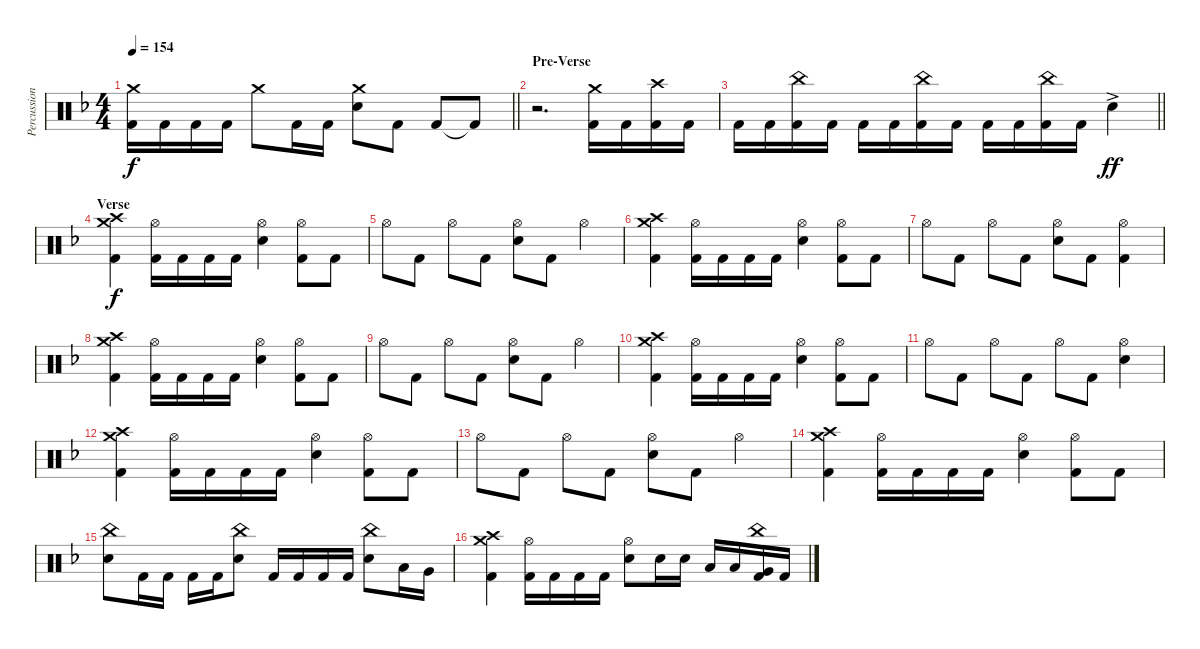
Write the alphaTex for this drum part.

\track ("Percussion" "Percussion") {instrument percussion}
\staff {score}
\articulation defaults
\ts (4 4)
\tempo 154
\clef neutral
\barLineRight lightlight
\ks dminor
("Crash medium (hit)" "Kick (hit) 2").16{dy f} "Kick (hit) 2".16 "Kick (hit) 2".16 "Kick (hit) 2".16 "Crash medium (hit)".8 "Kick (hit) 2".16 "Kick (hit) 2".16 ("Crash medium (hit)" "Electric Snare (hit)").8 "Kick (hit) 2".8 "Kick (hit) 2".8 "Kick (hit) 2"{t}.8{volume 0} |
\section ("" "Pre-Verse")
r.2{d} ("Crash medium (hit)" "Kick (hit) 2").16{volume 14} "Kick (hit) 2".16 ("Crash high (hit)" "Kick (hit) 2").16 "Kick (hit) 2".16 |
\barLineRight lightlight "Kick (hit) 2".16 "Kick (hit) 2".16
("China (hit)" "Kick (hit) 2").16 "Kick (hit) 2".16 "Kick (hit) 2".16 "Kick (hit) 2".16 ("China (hit)" "Kick (hit) 2").16 "Kick (hit) 2".16 "Kick (hit) 2".16 "Kick (hit) 2".16 ("China (hit)" "Kick (hit) 2").16 "Kick (hit) 2".16 "Electric Snare (hit)"{ac}.4{dy ff} |
\section ("" "Verse")
("Crash medium (hit)" "Crash high (hit)" "Kick (hit) 2").4{dy f} ("Hi-Hat (open)" "Kick (hit) 2").16 "Kick (hit) 2".16 "Kick (hit) 2".16 "Kick (hit) 2".16 ("Hi-Hat (open)" "Electric Snare (hit)").4 ("Hi-Hat (open)" "Kick (hit) 2").8 "Kick (hit) 2".8 |
"Hi-Hat (open)".8 "Kick (hit) 2".8 "Hi-Hat (open)".8 "Kick (hit) 2".8 ("Hi-Hat (open)" "Electric Snare (hit)").8 "Kick (hit) 2".8 "Hi-Hat (open)".4 |
("Crash medium (hit)" "Crash high (hit)" "Kick (hit) 2").4 ("Hi-Hat (open)" "Kick (hit) 2").16 "Kick (hit) 2".16 "Kick (hit) 2".16 "Kick (hit) 2".16 ("Hi-Hat (open)" "Electric Snare (hit)").4 ("Hi-Hat (open)" "Kick (hit) 2").8 "Kick (hit) 2".8 |
"Hi-Hat (open)".8 "Kick (hit) 2".8 "Hi-Hat (open)".8 "Kick (hit) 2".8 ("Hi-Hat (open)" "Electric Snare (hit)").8 "Kick (hit) 2".8 ("Hi-Hat (open)" "Kick (hit) 2").4 |
("Crash medium (hit)" "Crash high (hit)" "Kick (hit) 2").4 ("Hi-Hat (open)" "Kick (hit) 2").16 "Kick (hit) 2".16 "Kick (hit) 2".16 "Kick (hit) 2".16 ("Hi-Hat (open)" "Electric Snare (hit)").4 ("Hi-Hat (open)" "Kick (hit) 2").8 "Kick (hit) 2".8 |
"Hi-Hat (open)".8 "Kick (hit) 2".8 "Hi-Hat (open)".8 "Kick (hit) 2".8 ("Hi-Hat (open)" "Electric Snare (hit)").8 "Kick (hit) 2".8 "Hi-Hat (open)".4 |
("Crash medium (hit)" "Crash high (hit)" "Kick (hit) 2").4 ("Hi-Hat (open)" "Kick (hit) 2").16 "Kick (hit) 2".16 "Kick (hit) 2".16 "Kick (hit) 2".16 ("Hi-Hat (open)" "Electric Snare (hit)").4 ("Hi-Hat (open)" "Kick (hit) 2").8 "Kick (hit) 2".8 |
"Hi-Hat (open)".8 "Kick (hit) 2".8 "Hi-Hat (open)".8 "Kick (hit) 2".8 "Hi-Hat (open)".8 "Kick (hit) 2".8 ("Hi-Hat (open)" "Electric Snare (hit)").4 |
("Crash medium (hit)" "Crash high (hit)" "Kick (hit) 2").4 ("Hi-Hat (open)" "Kick (hit) 2").16 "Kick (hit) 2".16 "Kick (hit) 2".16 "Kick (hit) 2".16 ("Hi-Hat (open)" "Electric Snare (hit)").4 ("Hi-Hat (open)" "Kick (hit) 2").8 "Kick (hit) 2".8 |
"Hi-Hat (open)".8 "Kick (hit) 2".8 "Hi-Hat (open)".8 "Kick (hit) 2".8 ("Hi-Hat (open)" "Electric Snare (hit)").8 "Kick (hit) 2".8 "Hi-Hat (open)".4 |
("Crash medium (hit)" "Crash high (hit)" "Kick (hit) 2").4 ("Hi-Hat (open)" "Kick (hit) 2").16 "Kick (hit) 2".16 "Kick (hit) 2".16 "Kick (hit) 2".16 ("Hi-Hat (open)" "Electric Snare (hit)").4 ("Hi-Hat (open)" "Kick (hit) 2").8 "Kick (hit) 2".8 |
("China (hit)" "Electric Snare (hit)").8 "Kick (hit) 2".16 "Kick (hit) 2".16 "Kick (hit) 2".16 "Kick (hit) 2".16 ("China (hit)" "Electric Snare (hit)").8 "Kick (hit) 2".16 "Kick (hit) 2".16 "Kick (hit) 2".16 "Kick (hit) 2".16 ("China (hit)" "Electric Snare (hit)").8 "Low Tom (hit)".16 "Very Low Tom (hit)".16 |
("Crash medium (hit)" "Crash high (hit)" "Kick (hit) 2").4 ("Hi-Hat (open)" "Kick (hit) 2").16 "Kick (hit) 2".16 "Kick (hit) 2".16 "Kick (hit) 2".16 ("Hi-Hat (open)" "Electric Snare (hit)").8 "Electric Snare (hit)".16 "Electric Snare (hit)".16 "Low Tom (hit)".16 "Low Tom (hit)".16 ("China (hit)" "Very Low Tom (hit)" "Kick (hit) 2").16 "Kick (hit) 2".16
